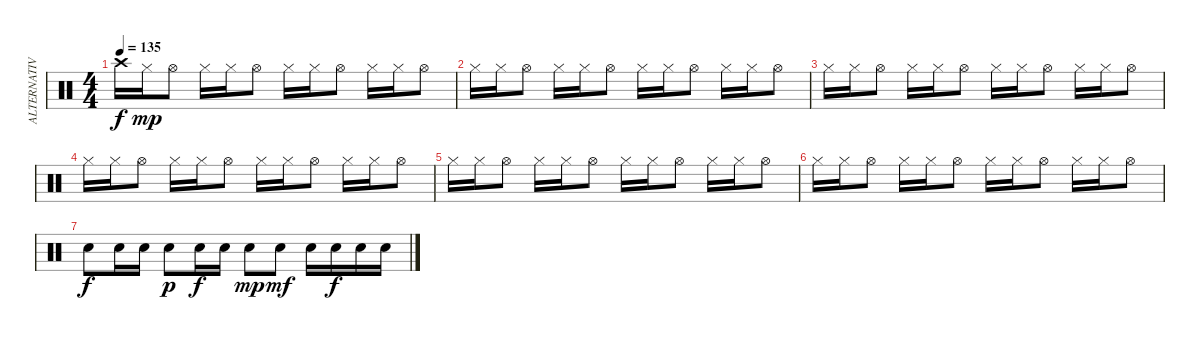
\track ("ALTERNATIVE" "ALTERNATIV") {instrument percussion}
\staff {score}
\articulation defaults
\ts (4 4)
\tempo 135
\clef neutral
\ks c "Crash high (hit)".16{dy f} "Hi-Hat (closed)".16{dy mp} "Hi-Hat (open)".8 "Hi-Hat (closed)".16 "Hi-Hat (closed)".16 "Hi-Hat (open)".8 "Hi-Hat (closed)".16 "Hi-Hat (closed)".16 "Hi-Hat (open)".8 "Hi-Hat (closed)".16 "Hi-Hat (closed)".16 "Hi-Hat (open)".8
|
"Hi-Hat (closed)".16 "Hi-Hat (closed)".16 "Hi-Hat (open)".8 "Hi-Hat (closed)".16 "Hi-Hat (closed)".16 "Hi-Hat (open)".8 "Hi-Hat (closed)".16 "Hi-Hat (closed)".16 "Hi-Hat (open)".8 "Hi-Hat (closed)".16 "Hi-Hat (closed)".16 "Hi-Hat (open)".8 |
"Hi-Hat (closed)".16 "Hi-Hat (closed)".16 "Hi-Hat (open)".8 "Hi-Hat (closed)".16 "Hi-Hat (closed)".16 "Hi-Hat (open)".8 "Hi-Hat (closed)".16 "Hi-Hat (closed)".16 "Hi-Hat (open)".8 "Hi-Hat (closed)".16 "Hi-Hat (closed)".16 "Hi-Hat (open)".8 |
"Hi-Hat (closed)".16 "Hi-Hat (closed)".16 "Hi-Hat (open)".8 "Hi-Hat (closed)".16 "Hi-Hat (closed)".16 "Hi-Hat (open)".8 "Hi-Hat (closed)".16 "Hi-Hat (closed)".16 "Hi-Hat (open)".8 "Hi-Hat (closed)".16 "Hi-Hat (closed)".16 "Hi-Hat (open)".8 |
"Hi-Hat (closed)".16 "Hi-Hat (closed)".16 "Hi-Hat (open)".8 "Hi-Hat (closed)".16 "Hi-Hat (closed)".16 "Hi-Hat (open)".8 "Hi-Hat (closed)".16 "Hi-Hat (closed)".16 "Hi-Hat (open)".8 "Hi-Hat (closed)".16 "Hi-Hat (closed)".16 "Hi-Hat (open)".8 |
"Hi-Hat (closed)".16 "Hi-Hat (closed)".16 "Hi-Hat (open)".8 "Hi-Hat (closed)".16 "Hi-Hat (closed)".16 "Hi-Hat (open)".8 "Hi-Hat (closed)".16 "Hi-Hat (closed)".16 "Hi-Hat (open)".8 "Hi-Hat (closed)".16 "Hi-Hat (closed)".16 "Hi-Hat (open)".8 |
"Electric Snare (hit)".8{dy f} "Electric Snare (hit)".16 "Electric Snare (hit)".16 "Electric Snare (hit)".8{dy p} "Electric Snare (hit)".16{dy f} "Electric Snare (hit)".16 "Electric Snare (hit)".8{dy mp} "Electric Snare (hit)".8{dy mf} "Electric Snare (hit)".16 "Electric Snare (hit)".16{dy f} "Electric Snare (hit)".16 "Electric Snare (hit)".16
